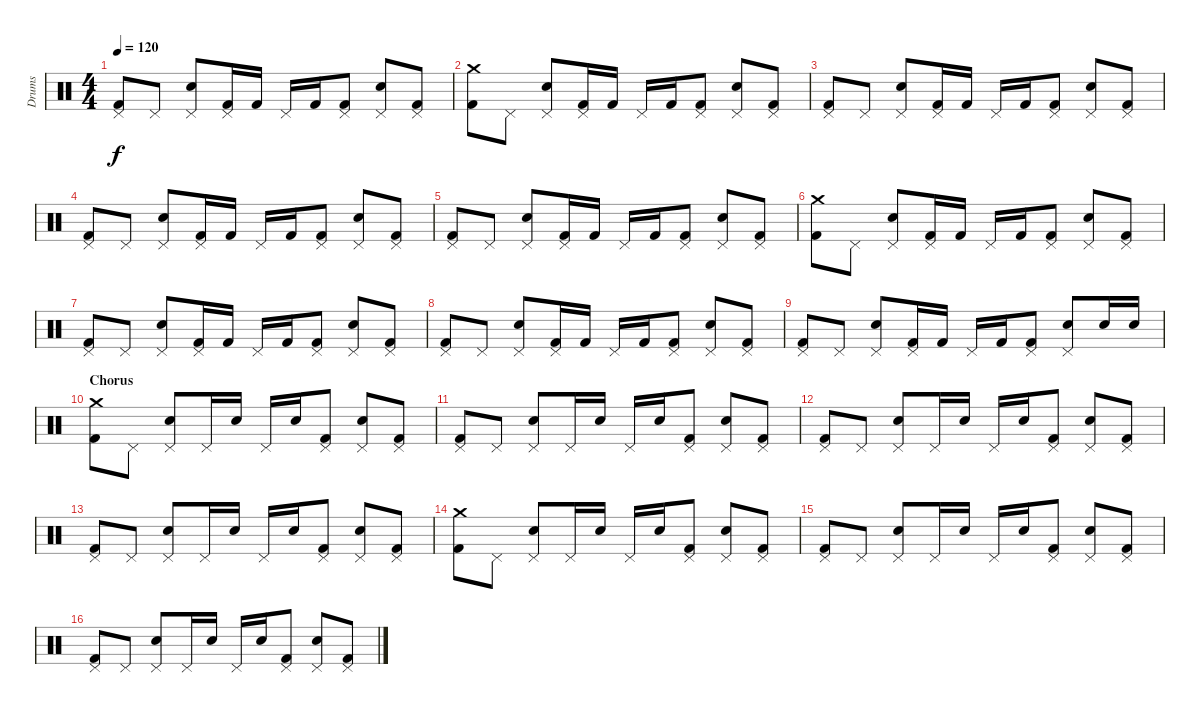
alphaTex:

\track ("Drums" "Drums") {instrument percussion}
\staff {score}
\articulation defaults
\ts (4 4)
\tempo 120
\clef neutral
\ks c
("Pedal Hi-Hat (hit)" "Kick (hit) 2").8{dy f} "Pedal Hi-Hat (hit)".8 ("Pedal Hi-Hat (hit)" "Electric Snare (hit)").8 ("Pedal Hi-Hat (hit)" "Kick (hit) 2").16 "Kick (hit) 2".16 "Pedal Hi-Hat (hit)".16 "Kick (hit) 2".16 ("Pedal Hi-Hat (hit)" "Kick (hit) 2").8 ("Pedal Hi-Hat (hit)" "Electric Snare (hit)").8 ("Pedal Hi-Hat (hit)" "Kick (hit) 2").8 |
("Crash medium (hit)" "Kick (hit) 2").8 "Pedal Hi-Hat (hit)".8 ("Pedal Hi-Hat (hit)" "Electric Snare (hit)").8 ("Pedal Hi-Hat (hit)" "Kick (hit) 2").16 "Kick (hit) 2".16 "Pedal Hi-Hat (hit)".16 "Kick (hit) 2".16 ("Pedal Hi-Hat (hit)" "Kick (hit) 2").8 ("Pedal Hi-Hat (hit)" "Electric Snare (hit)").8 ("Pedal Hi-Hat (hit)" "Kick (hit) 2").8 |
("Pedal Hi-Hat (hit)" "Kick (hit) 2").8 "Pedal Hi-Hat (hit)".8 ("Pedal Hi-Hat (hit)" "Electric Snare (hit)").8 ("Pedal Hi-Hat (hit)" "Kick (hit) 2").16 "Kick (hit) 2".16 "Pedal Hi-Hat (hit)".16 "Kick (hit) 2".16 ("Pedal Hi-Hat (hit)" "Kick (hit) 2").8 ("Pedal Hi-Hat (hit)" "Electric Snare (hit)").8 ("Pedal Hi-Hat (hit)" "Kick (hit) 2").8 |
("Pedal Hi-Hat (hit)" "Kick (hit) 2").8 "Pedal Hi-Hat (hit)".8 ("Pedal Hi-Hat (hit)" "Electric Snare (hit)").8 ("Pedal Hi-Hat (hit)" "Kick (hit) 2").16 "Kick (hit) 2".16 "Pedal Hi-Hat (hit)".16 "Kick (hit) 2".16 ("Pedal Hi-Hat (hit)" "Kick (hit) 2").8 ("Pedal Hi-Hat (hit)" "Electric Snare (hit)").8 ("Pedal Hi-Hat (hit)" "Kick (hit) 2").8 |
("Pedal Hi-Hat (hit)" "Kick (hit) 2").8 "Pedal Hi-Hat (hit)".8 ("Pedal Hi-Hat (hit)" "Electric Snare (hit)").8 ("Pedal Hi-Hat (hit)" "Kick (hit) 2").16 "Kick (hit) 2".16 "Pedal Hi-Hat (hit)".16 "Kick (hit) 2".16 ("Pedal Hi-Hat (hit)" "Kick (hit) 2").8 ("Pedal Hi-Hat (hit)" "Electric Snare (hit)").8 ("Pedal Hi-Hat (hit)" "Kick (hit) 2").8 |
("Crash medium (hit)" "Kick (hit) 2").8 "Pedal Hi-Hat (hit)".8 ("Pedal Hi-Hat (hit)" "Electric Snare (hit)").8 ("Pedal Hi-Hat (hit)" "Kick (hit) 2").16 "Kick (hit) 2".16 "Pedal Hi-Hat (hit)".16 "Kick (hit) 2".16 ("Pedal Hi-Hat (hit)" "Kick (hit) 2").8 ("Pedal Hi-Hat (hit)" "Electric Snare (hit)").8 ("Pedal Hi-Hat (hit)" "Kick (hit) 2").8 |
("Pedal Hi-Hat (hit)" "Kick (hit) 2").8 "Pedal Hi-Hat (hit)".8 ("Pedal Hi-Hat (hit)" "Electric Snare (hit)").8 ("Pedal Hi-Hat (hit)" "Kick (hit) 2").16 "Kick (hit) 2".16 "Pedal Hi-Hat (hit)".16 "Kick (hit) 2".16 ("Pedal Hi-Hat (hit)" "Kick (hit) 2").8 ("Pedal Hi-Hat (hit)" "Electric Snare (hit)").8 ("Pedal Hi-Hat (hit)" "Kick (hit) 2").8 |
("Pedal Hi-Hat (hit)" "Kick (hit) 2").8 "Pedal Hi-Hat (hit)".8 ("Pedal Hi-Hat (hit)" "Electric Snare (hit)").8 ("Pedal Hi-Hat (hit)" "Kick (hit) 2").16 "Kick (hit) 2".16 "Pedal Hi-Hat (hit)".16 "Kick (hit) 2".16 ("Pedal Hi-Hat (hit)" "Kick (hit) 2").8 ("Pedal Hi-Hat (hit)" "Electric Snare (hit)").8 ("Pedal Hi-Hat (hit)" "Kick (hit) 2").8 |
("Pedal Hi-Hat (hit)" "Kick (hit) 2").8 "Pedal Hi-Hat (hit)".8 ("Pedal Hi-Hat (hit)" "Electric Snare (hit)").8 ("Pedal Hi-Hat (hit)" "Kick (hit) 2").16 "Kick (hit) 2".16 "Pedal Hi-Hat (hit)".16 "Kick (hit) 2".16 ("Pedal Hi-Hat (hit)" "Kick (hit) 2").8 ("Pedal Hi-Hat (hit)" "Electric Snare (hit)").8 "Electric Snare (hit)".16 "Electric Snare (hit)".16 |
\section ("" "Chorus")
("Crash medium (hit)" "Kick (hit) 2").8 "Pedal Hi-Hat (hit)".8 ("Pedal Hi-Hat (hit)" "Electric Snare (hit)").8 "Pedal Hi-Hat (hit)".16 "Electric Snare (hit)".16 "Pedal Hi-Hat (hit)".16 "Electric Snare (hit)".16 ("Pedal Hi-Hat (hit)" "Kick (hit) 2").8 ("Pedal Hi-Hat (hit)" "Electric Snare (hit)").8 ("Pedal Hi-Hat (hit)" "Kick (hit) 2").8 |
("Pedal Hi-Hat (hit)" "Kick (hit) 2").8 "Pedal Hi-Hat (hit)".8 ("Pedal Hi-Hat (hit)" "Electric Snare (hit)").8 "Pedal Hi-Hat (hit)".16 "Electric Snare (hit)".16 "Pedal Hi-Hat (hit)".16 "Electric Snare (hit)".16 ("Pedal Hi-Hat (hit)" "Kick (hit) 2").8 ("Pedal Hi-Hat (hit)" "Electric Snare (hit)").8 ("Pedal Hi-Hat (hit)" "Kick (hit) 2").8 |
("Pedal Hi-Hat (hit)" "Kick (hit) 2").8 "Pedal Hi-Hat (hit)".8 ("Pedal Hi-Hat (hit)" "Electric Snare (hit)").8 "Pedal Hi-Hat (hit)".16 "Electric Snare (hit)".16 "Pedal Hi-Hat (hit)".16 "Electric Snare (hit)".16 ("Pedal Hi-Hat (hit)" "Kick (hit) 2").8 ("Pedal Hi-Hat (hit)" "Electric Snare (hit)").8 ("Pedal Hi-Hat (hit)" "Kick (hit) 2").8 |
("Pedal Hi-Hat (hit)" "Kick (hit) 2").8 "Pedal Hi-Hat (hit)".8 ("Pedal Hi-Hat (hit)" "Electric Snare (hit)").8 "Pedal Hi-Hat (hit)".16 "Electric Snare (hit)".16 "Pedal Hi-Hat (hit)".16 "Electric Snare (hit)".16 ("Pedal Hi-Hat (hit)" "Kick (hit) 2").8 ("Pedal Hi-Hat (hit)" "Electric Snare (hit)").8 ("Pedal Hi-Hat (hit)" "Kick (hit) 2").8 |
("Crash medium (hit)" "Kick (hit) 2").8 "Pedal Hi-Hat (hit)".8 ("Pedal Hi-Hat (hit)" "Electric Snare (hit)").8 "Pedal Hi-Hat (hit)".16 "Electric Snare (hit)".16 "Pedal Hi-Hat (hit)".16 "Electric Snare (hit)".16 ("Pedal Hi-Hat (hit)" "Kick (hit) 2").8 ("Pedal Hi-Hat (hit)" "Electric Snare (hit)").8 ("Pedal Hi-Hat (hit)" "Kick (hit) 2").8 |
("Pedal Hi-Hat (hit)" "Kick (hit) 2").8 "Pedal Hi-Hat (hit)".8 ("Pedal Hi-Hat (hit)" "Electric Snare (hit)").8 "Pedal Hi-Hat (hit)".16 "Electric Snare (hit)".16 "Pedal Hi-Hat (hit)".16 "Electric Snare (hit)".16 ("Pedal Hi-Hat (hit)" "Kick (hit) 2").8 ("Pedal Hi-Hat (hit)" "Electric Snare (hit)").8 ("Pedal Hi-Hat (hit)" "Kick (hit) 2").8 |
("Pedal Hi-Hat (hit)" "Kick (hit) 2").8 "Pedal Hi-Hat (hit)".8 ("Pedal Hi-Hat (hit)" "Electric Snare (hit)").8 "Pedal Hi-Hat (hit)".16 "Electric Snare (hit)".16 "Pedal Hi-Hat (hit)".16 "Electric Snare (hit)".16 ("Pedal Hi-Hat (hit)" "Kick (hit) 2").8 ("Pedal Hi-Hat (hit)" "Electric Snare (hit)").8 ("Pedal Hi-Hat (hit)" "Kick (hit) 2").8
